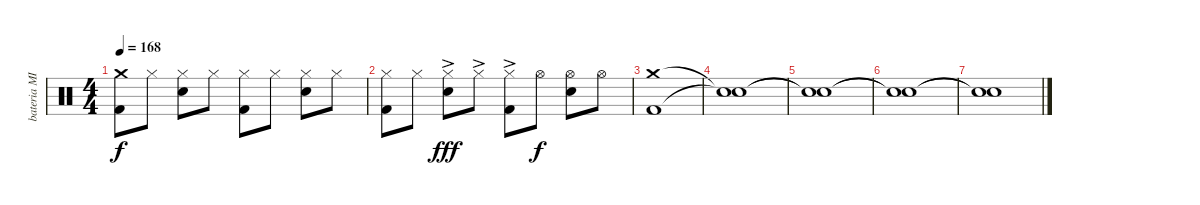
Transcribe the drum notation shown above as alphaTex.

\track ("bateria MIDI" "bateria MI") {instrument percussion}
\staff {score}
\articulation defaults
\ts (4 4)
\tempo 168
\clef neutral
\ks c
("Crash medium (hit)" "Kick (hit) 2").8{dy f} "Hi-Hat (closed)".8 ("Hi-Hat (closed)" "Snare (hit) 2").8 "Hi-Hat (closed)".8 ("Hi-Hat (closed)" "Kick (hit) 2").8 "Hi-Hat (closed)".8 ("Hi-Hat (closed)" "Snare (hit) 2").8 "Hi-Hat (closed)".8 |
("Hi-Hat (closed)" "Kick (hit) 2").8 "Hi-Hat (closed)".8 ("Hi-Hat (closed)"{ac} "Snare (hit) 2").8{dy fff} "Hi-Hat (closed)"{ac}.8 ("Hi-Hat (closed)"{ac} "Kick (hit) 2").8 "Hi-Hat (open)".8{dy f} ("Hi-Hat (open)" "Snare (hit) 2").8 "Hi-Hat (open)".8 |
("Crash medium (hit)" "Kick (hit) 2").1 |
("Snare (hit)"{t} "Snare (hit)"{t}).1 |
("Snare (hit)"{t} "Snare (hit)"{t}).1{volume 0} |
("Snare (hit)"{t} "Snare (hit)"{t}).1 |
("Snare (hit)"{t} "Snare (hit)"{t}).1
